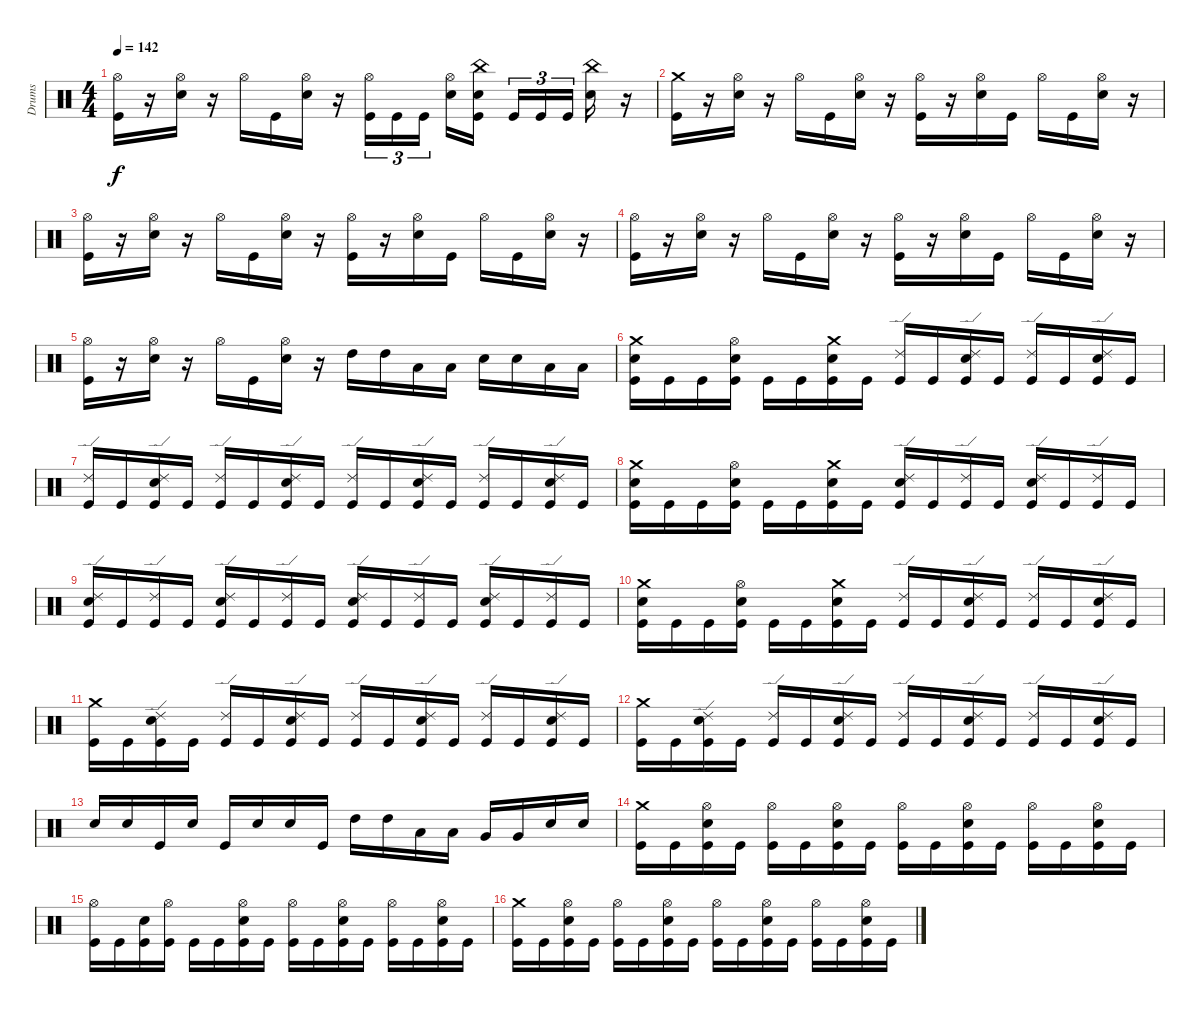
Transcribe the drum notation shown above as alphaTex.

\track ("Drums" "Drums") {instrument percussion}
\staff {score}
\articulation defaults
\ts (4 4)
\tempo 142
\clef neutral
\ks c
("Hi-Hat (open)" "Kick (hit)").16{dy f} r.16 ("Hi-Hat (open)" "Electric Snare (hit)").16 r.16 "Hi-Hat (open)".16 "Kick (hit)".16 ("Hi-Hat (open)" "Electric Snare (hit)").16 r.16 ("Kick (hit)" "Hi-Hat (open)").16{tu (3 2)} "Kick (hit)".16{tu (3 2)} "Kick (hit)".16{tu (3 2)} ("Hi-Hat (open)" "Electric Snare (hit)").16 ("Kick (hit)" "China (hit)" "Electric Snare (hit)").16 "Kick (hit)".16{tu (3 2)} "Kick (hit)".16{tu (3 2)} "Kick (hit)".16{tu (3 2)} ("China (hit)" "Electric Snare (hit)").16 r.16 |
("Kick (hit)" "Crash medium (hit)").16 r.16 ("Electric Snare (hit)" "Hi-Hat (open)").16 r.16 "Hi-Hat (open)".16 "Kick (hit)".16 ("Electric Snare (hit)" "Hi-Hat (open)").16 r.16 ("Kick (hit)" "Hi-Hat (open)").16 r.16 ("Electric Snare (hit)" "Hi-Hat (open)").16 "Kick (hit)".16 "Hi-Hat (open)".16 "Kick (hit)".16 ("Electric Snare (hit)" "Hi-Hat (open)").16 r.16 |
("Hi-Hat (open)" "Kick (hit)").16 r.16 ("Hi-Hat (open)" "Electric Snare (hit)").16 r.16 "Hi-Hat (open)".16 "Kick (hit)".16 ("Hi-Hat (open)" "Electric Snare (hit)").16 r.16 ("Kick (hit)" "Hi-Hat (open)").16 r.16 ("Hi-Hat (open)" "Electric Snare (hit)").16 "Kick (hit)".16 "Hi-Hat (open)".16 "Kick (hit)".16 ("Hi-Hat (open)" "Electric Snare (hit)").16 r.16 |
("Kick (hit)" "Hi-Hat (open)").16 r.16 ("Electric Snare (hit)" "Hi-Hat (open)").16 r.16 "Hi-Hat (open)".16 "Kick (hit)".16 ("Electric Snare (hit)" "Hi-Hat (open)").16 r.16 ("Kick (hit)" "Hi-Hat (open)").16 r.16 ("Electric Snare (hit)" "Hi-Hat (open)").16 "Kick (hit)".16 "Hi-Hat (open)".16 "Kick (hit)".16 ("Electric Snare (hit)" "Hi-Hat (open)").16 r.16 |
("Hi-Hat (open)" "Kick (hit)").16 r.16 ("Hi-Hat (open)" "Electric Snare (hit)").16 r.16 "Hi-Hat (open)".16 "Kick (hit)".16 ("Hi-Hat (open)" "Electric Snare (hit)").16 r.16 "High Tom (hit)".16 "High Tom (hit)".16 "Low Tom (hit)".16 "Low Tom (hit)".16 "Electric Snare (hit)".16 "Electric Snare (hit)".16 "Low Tom (hit)".16 "Low Tom (hit)".16 |
("Electric Snare (hit)" "Crash medium (hit)" "Kick (hit)").16 "Kick (hit)".16 "Kick (hit)".16 ("Electric Snare (hit)" "Hi-Hat (open)" "Kick (hit)").16 "Kick (hit)".16 "Kick (hit)".16 ("Electric Snare (hit)" "Crash medium (hit)" "Kick (hit)").16 "Kick (hit)".16 ("Kick (hit)" "Ride (edge) 2").16 "Kick (hit)".16 ("Kick (hit)" "Ride (edge) 2" "Electric Snare (hit)").16 "Kick (hit)".16 ("Kick (hit)" "Ride (edge) 2").16 "Kick (hit)".16 ("Kick (hit)" "Ride (edge) 2" "Electric Snare (hit)").16 "Kick (hit)".16 |
("Ride (edge) 2" "Kick (hit)").16 "Kick (hit)".16 ("Ride (edge) 2" "Electric Snare (hit)" "Kick (hit)").16 "Kick (hit)".16 ("Ride (edge) 2" "Kick (hit)").16 "Kick (hit)".16 ("Ride (edge) 2" "Electric Snare (hit)" "Kick (hit)").16 "Kick (hit)".16 ("Ride (edge) 2" "Kick (hit)").16 "Kick (hit)".16 ("Ride (edge) 2" "Electric Snare (hit)" "Kick (hit)").16 "Kick (hit)".16 ("Ride (edge) 2" "Kick (hit)").16 "Kick (hit)".16 ("Ride (edge) 2" "Electric Snare (hit)" "Kick (hit)").16 "Kick (hit)".16 |
("Crash medium (hit)" "Electric Snare (hit)" "Kick (hit)").16 "Kick (hit)".16 "Kick (hit)".16 ("Hi-Hat (open)" "Electric Snare (hit)" "Kick (hit)").16 "Kick (hit)".16 "Kick (hit)".16 ("Crash medium (hit)" "Electric Snare (hit)" "Kick (hit)").16 "Kick (hit)".16 ("Electric Snare (hit)" "Kick (hit)" "Ride (edge) 2").16 "Kick (hit)".16 ("Kick (hit)" "Ride (edge) 2").16 "Kick (hit)".16 ("Electric Snare (hit)" "Kick (hit)" "Ride (edge) 2").16 "Kick (hit)".16 ("Kick (hit)" "Ride (edge) 2").16 "Kick (hit)".16 |
("Electric Snare (hit)" "Ride (edge) 2" "Kick (hit)").16 "Kick (hit)".16 ("Ride (edge) 2" "Kick (hit)").16 "Kick (hit)".16 ("Electric Snare (hit)" "Ride (edge) 2" "Kick (hit)").16 "Kick (hit)".16 ("Ride (edge) 2" "Kick (hit)").16 "Kick (hit)".16 ("Electric Snare (hit)" "Ride (edge) 2" "Kick (hit)").16 "Kick (hit)".16 ("Ride (edge) 2" "Kick (hit)").16 "Kick (hit)".16 ("Electric Snare (hit)" "Ride (edge) 2" "Kick (hit)").16 "Kick (hit)".16 ("Ride (edge) 2" "Kick (hit)").16 "Kick (hit)".16 |
("Crash medium (hit)" "Electric Snare (hit)" "Kick (hit)").16 "Kick (hit)".16 "Kick (hit)".16 ("Hi-Hat (open)" "Electric Snare (hit)" "Kick (hit)").16 "Kick (hit)".16 "Kick (hit)".16 ("Crash medium (hit)" "Electric Snare (hit)" "Kick (hit)").16 "Kick (hit)".16 ("Kick (hit)" "Ride (edge) 2").16 "Kick (hit)".16 ("Kick (hit)" "Ride (edge) 2" "Electric Snare (hit)").16 "Kick (hit)".16 ("Kick (hit)" "Ride (edge) 2").16 "Kick (hit)".16 ("Kick (hit)" "Ride (edge) 2" "Electric Snare (hit)").16 "Kick (hit)".16 |
("Crash medium (hit)" "Kick (hit)").16 "Kick (hit)".16 ("Ride (edge) 2" "Electric Snare (hit)" "Kick (hit)").16 "Kick (hit)".16 ("Ride (edge) 2" "Kick (hit)").16 "Kick (hit)".16 ("Ride (edge) 2" "Electric Snare (hit)" "Kick (hit)").16 "Kick (hit)".16 ("Ride (edge) 2" "Kick (hit)").16 "Kick (hit)".16 ("Ride (edge) 2" "Electric Snare (hit)" "Kick (hit)").16 "Kick (hit)".16 ("Ride (edge) 2" "Kick (hit)").16 "Kick (hit)".16 ("Ride (edge) 2" "Electric Snare (hit)" "Kick (hit)").16 "Kick (hit)".16 |
("Crash medium (hit)" "Kick (hit)").16 "Kick (hit)".16 ("Ride (edge) 2" "Electric Snare (hit)" "Kick (hit)").16 "Kick (hit)".16 ("Ride (edge) 2" "Kick (hit)").16 "Kick (hit)".16 ("Ride (edge) 2" "Electric Snare (hit)" "Kick (hit)").16 "Kick (hit)".16 ("Ride (edge) 2" "Kick (hit)").16 "Kick (hit)".16 ("Ride (edge) 2" "Electric Snare (hit)" "Kick (hit)").16 "Kick (hit)".16 ("Ride (edge) 2" "Kick (hit)").16 "Kick (hit)".16 ("Ride (edge) 2" "Electric Snare (hit)" "Kick (hit)").16 "Kick (hit)".16 |
"Electric Snare (hit)".16 "Electric Snare (hit)".16 "Kick (hit)".16 "Electric Snare (hit)".16 "Kick (hit)".16 "Electric Snare (hit)".16 "Electric Snare (hit)".16 "Kick (hit)".16 "High Tom (hit)".16 "High Tom (hit)".16 "Low Tom (hit)".16 "Low Tom (hit)".16 "Very Low Tom (hit)".16 "Very Low Tom (hit)".16 "Electric Snare (hit)".16 "Electric Snare (hit)".16 |
("Crash medium (hit)" "Kick (hit)").16 "Kick (hit)".16 ("Electric Snare (hit)" "Hi-Hat (open)" "Kick (hit)").16 "Kick (hit)".16 ("Hi-Hat (open)" "Kick (hit)").16 "Kick (hit)".16 ("Electric Snare (hit)" "Hi-Hat (open)" "Kick (hit)").16 "Kick (hit)".16 ("Hi-Hat (open)" "Kick (hit)").16 "Kick (hit)".16 ("Electric Snare (hit)" "Hi-Hat (open)" "Kick (hit)").16 "Kick (hit)".16 ("Hi-Hat (open)" "Kick (hit)").16 "Kick (hit)".16 ("Electric Snare (hit)" "Hi-Hat (open)" "Kick (hit)").16 "Kick (hit)".16 |
("Hi-Hat (open)" "Kick (hit)").16 "Kick (hit)".16 ("Electric Snare (hit)" "Kick (hit)").16 ("Hi-Hat (open)" "Kick (hit)").16 "Kick (hit)".16 "Kick (hit)".16 ("Electric Snare (hit)" "Hi-Hat (open)" "Kick (hit)").16 "Kick (hit)".16 ("Hi-Hat (open)" "Kick (hit)").16 "Kick (hit)".16 ("Electric Snare (hit)" "Hi-Hat (open)" "Kick (hit)").16 "Kick (hit)".16 ("Hi-Hat (open)" "Kick (hit)").16 "Kick (hit)".16 ("Electric Snare (hit)" "Hi-Hat (open)" "Kick (hit)").16 "Kick (hit)".16 |
("Crash medium (hit)" "Kick (hit)").16 "Kick (hit)".16 ("Electric Snare (hit)" "Hi-Hat (open)" "Kick (hit)").16 "Kick (hit)".16 ("Hi-Hat (open)" "Kick (hit)").16 "Kick (hit)".16 ("Electric Snare (hit)" "Hi-Hat (open)" "Kick (hit)").16 "Kick (hit)".16 ("Hi-Hat (open)" "Kick (hit)").16 "Kick (hit)".16 ("Electric Snare (hit)" "Hi-Hat (open)" "Kick (hit)").16 "Kick (hit)".16 ("Hi-Hat (open)" "Kick (hit)").16 "Kick (hit)".16 ("Electric Snare (hit)" "Hi-Hat (open)" "Kick (hit)").16 "Kick (hit)".16
